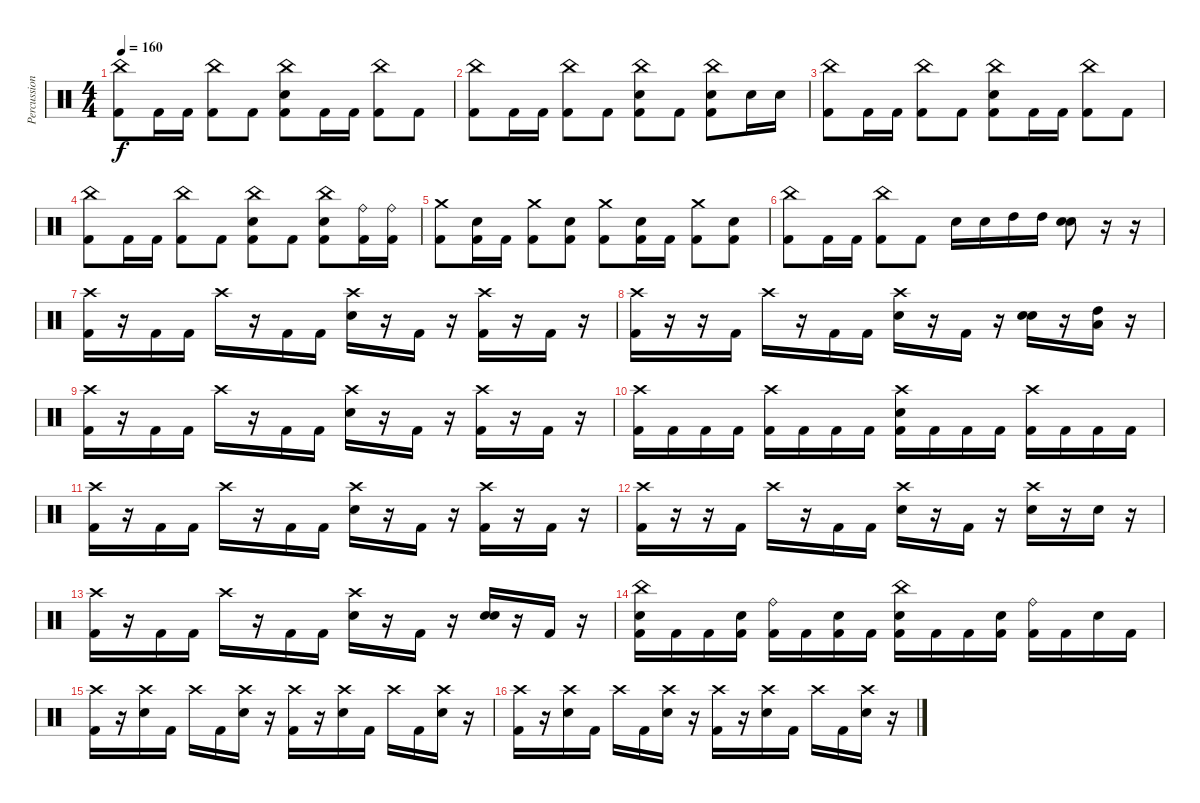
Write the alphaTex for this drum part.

\track ("Percussioni" "Percussion") {instrument percussion}
\staff {score}
\articulation defaults
\ts (4 4)
\tempo 160
\clef neutral
\ks c
("China (hit)" "Kick (hit) 2").8{dy f} "Kick (hit) 2".16 "Kick (hit) 2".16 ("China (hit)" "Kick (hit) 2").8 "Kick (hit) 2".8 ("China (hit)" "Electric Snare (hit)" "Kick (hit) 2").8 "Kick (hit) 2".16 "Kick (hit) 2".16 ("China (hit)" "Kick (hit) 2").8 "Kick (hit) 2".8 |
("China (hit)" "Kick (hit) 2").8 "Kick (hit) 2".16 "Kick (hit) 2".16 ("China (hit)" "Kick (hit) 2").8 "Kick (hit) 2".8 ("China (hit)" "Electric Snare (hit)" "Kick (hit) 2").8 "Kick (hit) 2".8 ("China (hit)" "Electric Snare (hit)" "Kick (hit) 2").8 "Electric Snare (hit)".16 "Electric Snare (hit)".16 |
("China (hit)" "Kick (hit) 2").8 "Kick (hit) 2".16 "Kick (hit) 2".16 ("China (hit)" "Kick (hit) 2").8 "Kick (hit) 2".8 ("China (hit)" "Electric Snare (hit)" "Kick (hit) 2").8 "Kick (hit) 2".16 "Kick (hit) 2".16 ("China (hit)" "Kick (hit) 2").8 "Kick (hit) 2".8 |
("China (hit)" "Kick (hit) 2").8 "Kick (hit) 2".16 "Kick (hit) 2".16 ("China (hit)" "Kick (hit) 2").8 "Kick (hit) 2".8 ("China (hit)" "Electric Snare (hit)" "Kick (hit) 2").8 "Kick (hit) 2".8 ("China (hit)" "Electric Snare (hit)" "Kick (hit) 2").8 ("Ride (bell)" "Kick (hit) 2").16 ("Ride (bell)" "Kick (hit) 2").16 |
("Crash medium (hit)" "Kick (hit) 2").8 ("Electric Snare (hit)" "Kick (hit) 2").16 "Kick (hit) 2".16 ("Crash medium (hit)" "Kick (hit) 2").8 ("Electric Snare (hit)" "Kick (hit) 2").8 ("Crash medium (hit)" "Kick (hit) 2").8 ("Electric Snare (hit)" "Kick (hit) 2").16 "Kick (hit) 2".16 ("Crash medium (hit)" "Kick (hit) 2").8 ("Electric Snare (hit)" "Kick (hit) 2").8 |
("China (hit)" "Kick (hit) 2").8 "Kick (hit) 2".16 "Kick (hit) 2".16 ("China (hit)" "Kick (hit) 2").8 "Kick (hit) 2".8 "Electric Snare (hit)".16 "Electric Snare (hit)".16 "High Tom (hit)".16 "High Tom (hit)".16 ("Electric Snare (hit)" "Electric Snare (hit)").8 r.16 r.16 |
("Crash high (hit)" "Kick (hit) 2").16 r.16 "Kick (hit) 2".16 "Kick (hit) 2".16 "Crash high (hit)".16 r.16 "Kick (hit) 2".16 "Kick (hit) 2".16 ("Crash high (hit)" "Electric Snare (hit)").16 r.16 "Kick (hit) 2".16 r.16 ("Crash high (hit)" "Kick (hit) 2").16 r.16 "Kick (hit) 2".16 r.16 |
("Crash high (hit)" "Kick (hit) 2").16 r.16 r.16 "Kick (hit) 2".16 "Crash high (hit)".16 r.16 "Kick (hit) 2".16 "Kick (hit) 2".16 ("Crash high (hit)" "Electric Snare (hit)").16 r.16 "Kick (hit) 2".16 r.16 ("Electric Snare (hit)" "Electric Snare (hit)").16 r.16 ("High Tom (hit)" "Low Tom (hit)").16 r.16 |
("Crash high (hit)" "Kick (hit) 2").16 r.16 "Kick (hit) 2".16 "Kick (hit) 2".16 "Crash high (hit)".16 r.16 "Kick (hit) 2".16 "Kick (hit) 2".16 ("Crash high (hit)" "Electric Snare (hit)").16 r.16 "Kick (hit) 2".16 r.16 ("Crash high (hit)" "Kick (hit) 2").16 r.16 "Kick (hit) 2".16 r.16 |
("Crash high (hit)" "Kick (hit) 2").16 "Kick (hit) 2".16 "Kick (hit) 2".16 "Kick (hit) 2".16 ("Crash high (hit)" "Kick (hit) 2").16 "Kick (hit) 2".16 "Kick (hit) 2".16 "Kick (hit) 2".16 ("Crash high (hit)" "Electric Snare (hit)" "Kick (hit) 2").16 "Kick (hit) 2".16 "Kick (hit) 2".16 "Kick (hit) 2".16 ("Crash high (hit)" "Kick (hit) 2").16 "Kick (hit) 2".16 "Kick (hit) 2".16 "Kick (hit) 2".16 |
("Crash high (hit)" "Kick (hit) 2").16 r.16 "Kick (hit) 2".16 "Kick (hit) 2".16 "Crash high (hit)".16 r.16 "Kick (hit) 2".16 "Kick (hit) 2".16 ("Crash high (hit)" "Electric Snare (hit)").16 r.16 "Kick (hit) 2".16 r.16 ("Crash high (hit)" "Kick (hit) 2").16 r.16 "Kick (hit) 2".16 r.16 |
("Crash high (hit)" "Kick (hit) 2").16 r.16 r.16 "Kick (hit) 2".16 "Crash high (hit)".16 r.16 "Kick (hit) 2".16 "Kick (hit) 2".16 ("Crash high (hit)" "Electric Snare (hit)").16 r.16 "Kick (hit) 2".16 r.16 ("Crash high (hit)" "Electric Snare (hit)").16 r.16 "Electric Snare (hit)".16 r.16 |
("Crash high (hit)" "Kick (hit) 2").16 r.16 "Kick (hit) 2".16 "Kick (hit) 2".16 "Crash high (hit)".16 r.16 "Kick (hit) 2".16 "Kick (hit) 2".16 ("Crash high (hit)" "Electric Snare (hit)").16 r.16 "Kick (hit) 2".16 r.16 ("Electric Snare (hit)" "Electric Snare (hit)").16 r.16 "Kick (hit) 2".16 r.16 |
("China (hit)" "Electric Snare (hit)" "Kick (hit) 2").16 "Kick (hit) 2".16 "Kick (hit) 2".16 ("Electric Snare (hit)" "Kick (hit) 2").16 ("Ride (bell)" "Kick (hit) 2").16 "Kick (hit) 2".16 ("Electric Snare (hit)" "Kick (hit) 2").16 "Kick (hit) 2".16 ("China (hit)" "Electric Snare (hit)" "Kick (hit) 2").16 "Kick (hit) 2".16 "Kick (hit) 2".16 ("Electric Snare (hit)" "Kick (hit) 2").16 ("Ride (bell)" "Kick (hit) 2").16 "Kick (hit) 2".16 "Electric Snare (hit)".16 "Kick (hit) 2".16 |
("Crash high (hit)" "Kick (hit) 2").16 r.16 ("Crash high (hit)" "Electric Snare (hit)").16 "Kick (hit) 2".16 "Crash high (hit)".16 "Kick (hit) 2".16 ("Crash high (hit)" "Electric Snare (hit)").16 r.16 ("Crash high (hit)" "Kick (hit) 2").16 r.16 ("Crash high (hit)" "Electric Snare (hit)").16 "Kick (hit) 2".16 "Crash high (hit)".16 "Kick (hit) 2".16 ("Crash high (hit)" "Electric Snare (hit)").16 r.16 |
("Crash high (hit)" "Kick (hit) 2").16 r.16 ("Crash high (hit)" "Electric Snare (hit)").16 "Kick (hit) 2".16 "Crash high (hit)".16 "Kick (hit) 2".16 ("Crash high (hit)" "Electric Snare (hit)").16 r.16 ("Crash high (hit)" "Kick (hit) 2").16 r.16 ("Crash high (hit)" "Electric Snare (hit)").16 "Kick (hit) 2".16 "Crash high (hit)".16 "Kick (hit) 2".16 ("Crash high (hit)" "Electric Snare (hit)").16 r.16
